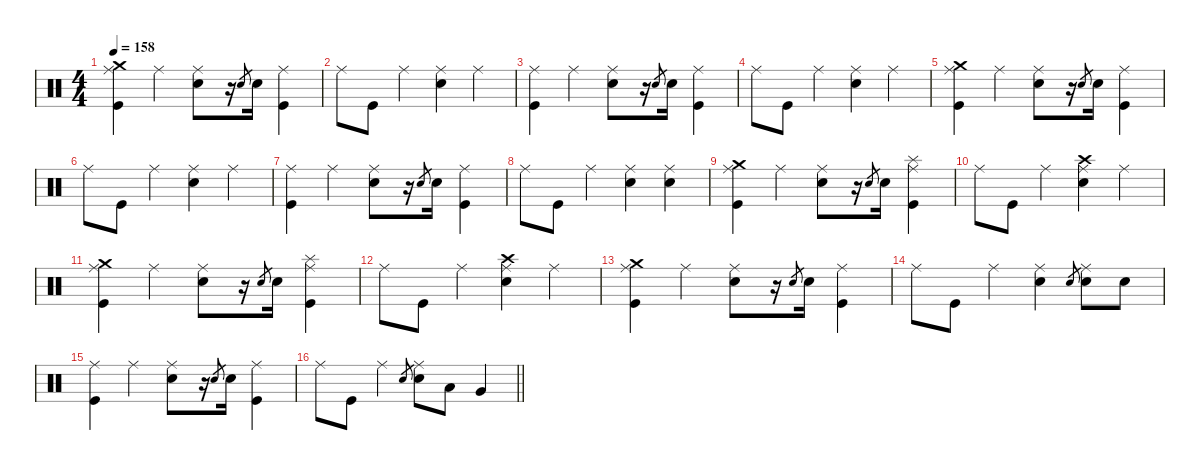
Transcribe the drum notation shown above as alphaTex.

\defaultSystemsLayout 4
\hideDynamics
\bracketExtendMode nobrackets
\singleTrackTrackNamePolicy hidden
\multiTrackTrackNamePolicy hidden
\firstSystemTrackNameMode fullname
\firstSystemTrackNameOrientation horizontal
\otherSystemsTrackNameOrientation horizontal
\track ("Drums" "drm.") {instrument percussion}
\staff {score}
\articulation defaults
\ts (4 4)
\tempo 158
\clef neutral
\ks aminor
("Crash medium (hit)" "Ride (middle)" "Kick (hit)").4{dy f beam Down} "Ride (middle)".4{beam Down} ("Ride (middle)" "Snare (hit) 2").8{beam Down} r.16{beam Down} "Electric Snare (hit)".8{gr dy pp beam Up} "Snare (hit) 2".16{dy p beam Down} ("Ride (middle)" "Kick (hit)").4{dy f beam Down} |
"Ride (middle)".8{beam Down} "Kick (hit)".8{beam Down} "Ride (middle)".4{beam Down} ("Ride (middle)" "Snare (hit) 2").4{beam Down} "Ride (middle)".4{beam Down} |
("Ride (middle)" "Kick (hit)").4{beam Down} "Ride (middle)".4{beam Down} ("Ride (middle)" "Snare (hit) 2").8{beam Down} r.16{beam Down} "Electric Snare (hit)".8{gr dy pp beam Up} "Snare (hit) 2".16{dy p beam Down} ("Ride (middle)" "Kick (hit)").4{dy f beam Down} |
"Ride (middle)".8{beam Down} "Kick (hit)".8{beam Down} "Ride (middle)".4{beam Down} ("Ride (middle)" "Snare (hit) 2").4{beam Down} "Ride (middle)".4{beam Down} |
("Crash medium (hit)" "Ride (middle)" "Kick (hit)").4{beam Down} "Ride (middle)".4{beam Down} ("Ride (middle)" "Snare (hit) 2").8{beam Down} r.16{beam Down} "Electric Snare (hit)".8{gr dy pp beam Up} "Snare (hit) 2".16{dy p beam Down} ("Ride (middle)" "Kick (hit)").4{dy f beam Down} |
"Ride (middle)".8{beam Down} "Kick (hit)".8{beam Down} "Ride (middle)".4{beam Down} ("Ride (middle)" "Snare (hit) 2").4{beam Down} "Ride (middle)".4{beam Down} |
("Ride (middle)" "Kick (hit)").4{beam Down} "Ride (middle)".4{beam Down} ("Ride (middle)" "Snare (hit) 2").8{beam Down} r.16{beam Down} "Electric Snare (hit)".8{gr dy pp beam Up} "Snare (hit) 2".16{dy p beam Down} ("Ride (middle)" "Kick (hit)").4{dy f beam Down} |
"Ride (middle)".8{beam Down} "Kick (hit)".8{beam Down} "Ride (middle)".4{beam Down} ("Ride (middle)" "Snare (hit) 2").4{beam Down} ("Ride (middle)" "Snare (hit) 2").4{beam Down} |
("Crash medium (hit)" "Ride (middle)" "Kick (hit)").4{beam Down} "Ride (middle)".4{beam Down} ("Ride (middle)" "Snare (hit) 2").8{beam Down} r.16{beam Down} "Electric Snare (hit)".8{gr dy pp beam Up} "Snare (hit) 2".16{dy p beam Down} ("Splash (hit)" "Ride (middle)" "Kick (hit)").4{dy mf beam Down} |
"Ride (middle)".8{dy f beam Down} "Kick (hit)".8{beam Down} "Ride (middle)".4{beam Down} ("Crash high (hit)" "Ride (middle)" "Snare (hit) 2").4{dy mf beam Down} "Ride (middle)".4{dy f beam Down} |
("Crash medium (hit)" "Ride (middle)" "Kick (hit)").4{beam Down} "Ride (middle)".4{beam Down} ("Ride (middle)" "Snare (hit) 2").8{beam Down} r.16{beam Down} "Electric Snare (hit)".8{gr dy pp beam Up} "Snare (hit) 2".16{dy p beam Down} ("Splash (hit)" "Ride (middle)" "Kick (hit)").4{dy mf beam Down} |
"Ride (middle)".8{dy f beam Down} "Kick (hit)".8{beam Down} "Ride (middle)".4{beam Down} ("Crash high (hit)" "Ride (middle)" "Snare (hit) 2").4{dy mf beam Down} "Ride (middle)".4{dy f beam Down} |
("Crash medium (hit)" "Ride (middle)" "Kick (hit)").4{beam Down} "Ride (middle)".4{beam Down} ("Ride (middle)" "Snare (hit) 2").8{beam Down} r.16{beam Down} "Electric Snare (hit)".8{gr dy pp beam Up} "Snare (hit) 2".16{dy p beam Down} ("Ride (middle)" "Kick (hit)").4{dy f beam Down} |
"Ride (middle)".8{beam Down} "Kick (hit)".8{beam Down} "Ride (middle)".4{beam Down} ("Ride (middle)" "Snare (hit) 2").4{beam Down} "Electric Snare (hit)".8{gr dy mp beam Up} ("Ride (middle)" "Snare (hit) 2").8{dy f beam Down} "Snare (hit) 2".8{dy mf beam Down} |
("Ride (middle)" "Kick (hit)").4{dy f beam Down} "Ride (middle)".4{beam Down} ("Ride (middle)" "Snare (hit) 2").8{beam Down} r.16{beam Down} "Electric Snare (hit)".8{gr dy pp beam Up} "Snare (hit) 2".16{dy p beam Down} ("Ride (middle)" "Kick (hit)").4{dy f beam Down} |
\barLineRight lightlight "Ride (middle)".8{beam Down} "Kick (hit)".8{beam Down} "Ride (middle)".4{beam Down} "Electric Snare (hit)".8{gr dy mf beam Up}
("Ride (middle)" "Snare (hit) 2").8{dy f beam Down} "Low Tom (hit)".8{beam Down} "Very Low Tom (hit)".4{beam Up}
